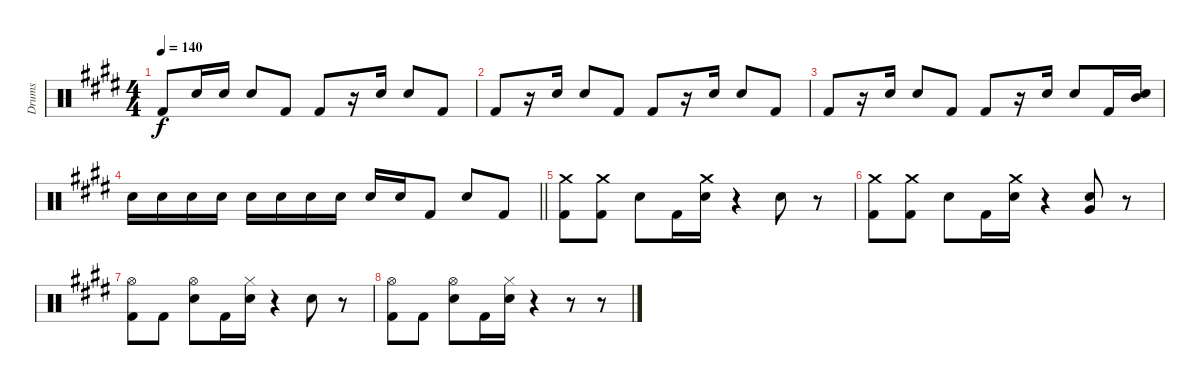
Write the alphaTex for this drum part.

\track ("Drums" "Drums") {instrument percussion}
\staff {score}
\articulation defaults
\ts (4 4)
\tempo 140
\clef neutral
\ks c#minor "Kick (hit) 2".8{dy f} "Electric Snare (hit)".16 "Electric Snare (hit)".16 "Electric Snare (hit)".8 "Kick (hit) 2".8 "Kick (hit) 2".8
r.16 "Electric Snare (hit)".16 "Electric Snare (hit)".8 "Kick (hit) 2".8 |
"Kick (hit) 2".8 r.16 "Electric Snare (hit)".16 "Electric Snare (hit)".8 "Kick (hit) 2".8 "Kick (hit) 2".8 r.16 "Electric Snare (hit)".16 "Electric Snare (hit)".8 "Kick (hit) 2".8 |
"Kick (hit) 2".8 r.16 "Electric Snare (hit)".16 "Electric Snare (hit)".8 "Kick (hit) 2".8 "Kick (hit) 2".8 r.16 "Electric Snare (hit)".16 "Electric Snare (hit)".8 "Kick (hit) 2".16 ("Mid Tom (hit)" "Electric Snare (hit)").16 |
\barLineRight lightlight "Electric Snare (hit)".16 "Electric Snare (hit)".16 "Electric Snare (hit)".16 "Electric Snare (hit)".16 "Electric Snare (hit)".16 "Electric Snare (hit)".16 "Electric Snare (hit)".16 "Electric Snare (hit)".16 "Electric Snare (hit)".16 "Electric Snare (hit)".16 "Kick (hit) 2".8 "Electric Snare (hit)".8 "Kick (hit) 2".8
|
\ks e
("Crash medium (hit)" "Kick (hit) 2").8 ("Crash medium (hit)" "Kick (hit) 2").8 "Electric Snare (hit)".8 "Kick (hit) 2".16 ("Crash medium (hit)" "Electric Snare (hit)").16 r.4 "Electric Snare (hit)".8 r.8 |
\ks c#minor
("Crash medium (hit)" "Kick (hit) 2").8 ("Crash medium (hit)" "Kick (hit) 2").8 "Electric Snare (hit)".8 "Kick (hit) 2".16 ("Crash medium (hit)" "Electric Snare (hit)").16 r.4 ("Electric Snare (hit)" "Very Low Tom (hit)").8 r.8 |
("Hi-Hat (open)" "Kick (hit) 2").8 "Kick (hit) 2".8 ("Hi-Hat (open)" "Electric Snare (hit)").8 "Kick (hit) 2".16 ("Hi-Hat (closed)" "Electric Snare (hit)").16 r.4 "Electric Snare (hit)".8 r.8 |
("Hi-Hat (open)" "Kick (hit) 2").8 "Kick (hit) 2".8 ("Hi-Hat (open)" "Electric Snare (hit)").8 "Kick (hit) 2".16 ("Hi-Hat (closed)" "Electric Snare (hit)").16 r.4 r.8 r.8
